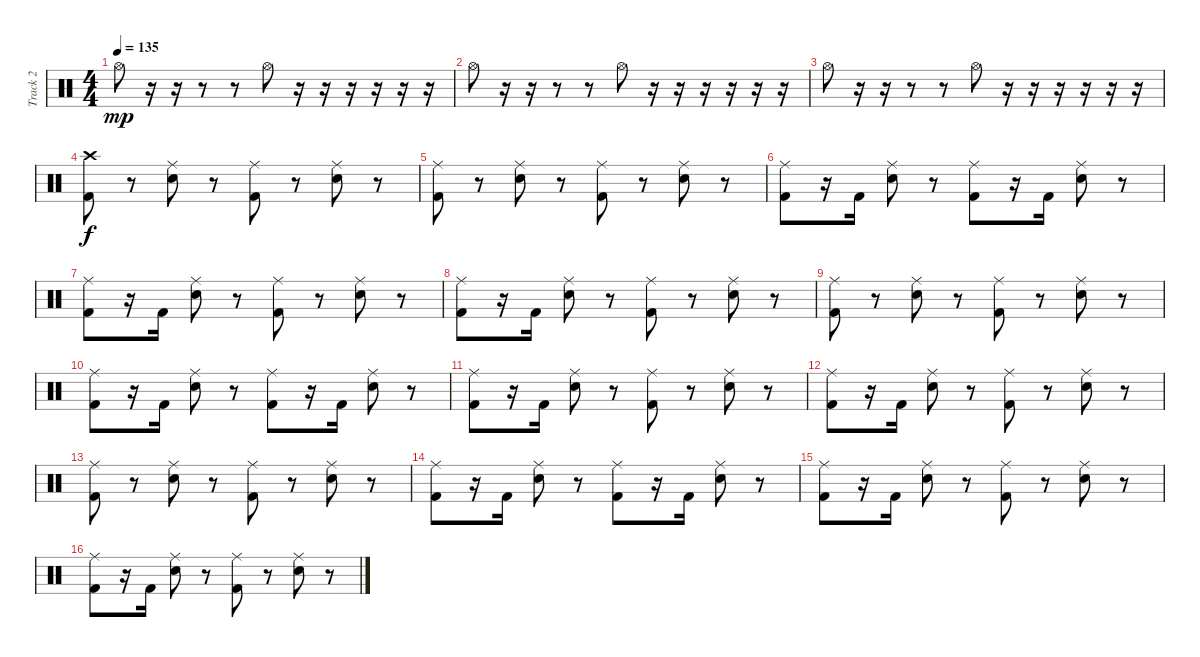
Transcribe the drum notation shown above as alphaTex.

\track ("Track 2" "Track 2") {instrument percussion}
\staff {score}
\articulation defaults
\ts (4 4)
\tempo 135
\clef neutral
\ks c "Hi-Hat (open)".8{dy mp}
r.16 r.16 r.8 r.8 "Hi-Hat (open)".8 r.16 r.16 r.16 r.16 r.16 r.16 |
"Hi-Hat (open)".8 r.16 r.16 r.8 r.8 "Hi-Hat (open)".8 r.16 r.16 r.16 r.16 r.16 r.16 |
"Hi-Hat (open)".8 r.16 r.16 r.8 r.8 "Hi-Hat (open)".8 r.16 r.16 r.16 r.16 r.16 r.16 |
("Crash high (hit)" "Kick (hit) 2").8{dy f} r.8 ("Ride (middle)" "Electric Snare (hit)").8 r.8 ("Ride (middle)" "Kick (hit) 2").8 r.8 ("Ride (middle)" "Electric Snare (hit)").8 r.8 |
("Ride (middle)" "Kick (hit) 2").8 r.8 ("Ride (middle)" "Electric Snare (hit)").8 r.8 ("Ride (middle)" "Kick (hit) 2").8 r.8 ("Ride (middle)" "Electric Snare (hit)").8 r.8 |
("Ride (middle)" "Kick (hit) 2").8 r.16 "Kick (hit) 2".16 ("Ride (middle)" "Electric Snare (hit)").8 r.8 ("Ride (middle)" "Kick (hit) 2").8 r.16 "Kick (hit) 2".16 ("Ride (middle)" "Electric Snare (hit)").8 r.8 |
("Ride (middle)" "Kick (hit) 2").8 r.16 "Kick (hit) 2".16 ("Ride (middle)" "Electric Snare (hit)").8 r.8 ("Ride (middle)" "Kick (hit) 2").8 r.8 ("Ride (middle)" "Electric Snare (hit)").8 r.8 |
("Ride (middle)" "Kick (hit) 2").8 r.16 "Kick (hit) 2".16 ("Ride (middle)" "Electric Snare (hit)").8 r.8 ("Ride (middle)" "Kick (hit) 2").8 r.8 ("Ride (middle)" "Electric Snare (hit)").8 r.8 |
("Ride (middle)" "Kick (hit) 2").8 r.8 ("Ride (middle)" "Electric Snare (hit)").8 r.8 ("Ride (middle)" "Kick (hit) 2").8 r.8 ("Ride (middle)" "Electric Snare (hit)").8 r.8 |
("Ride (middle)" "Kick (hit) 2").8 r.16 "Kick (hit) 2".16 ("Ride (middle)" "Electric Snare (hit)").8 r.8 ("Ride (middle)" "Kick (hit) 2").8 r.16 "Kick (hit) 2".16 ("Ride (middle)" "Electric Snare (hit)").8 r.8 |
("Ride (middle)" "Kick (hit) 2").8 r.16 "Kick (hit) 2".16 ("Ride (middle)" "Electric Snare (hit)").8 r.8 ("Ride (middle)" "Kick (hit) 2").8 r.8 ("Ride (middle)" "Electric Snare (hit)").8 r.8 |
("Ride (middle)" "Kick (hit) 2").8 r.16 "Kick (hit) 2".16 ("Ride (middle)" "Electric Snare (hit)").8 r.8 ("Ride (middle)" "Kick (hit) 2").8 r.8 ("Ride (middle)" "Electric Snare (hit)").8 r.8 |
("Ride (middle)" "Kick (hit) 2").8 r.8 ("Ride (middle)" "Electric Snare (hit)").8 r.8 ("Ride (middle)" "Kick (hit) 2").8 r.8 ("Ride (middle)" "Electric Snare (hit)").8 r.8 |
("Ride (middle)" "Kick (hit) 2").8 r.16 "Kick (hit) 2".16 ("Ride (middle)" "Electric Snare (hit)").8 r.8 ("Ride (middle)" "Kick (hit) 2").8 r.16 "Kick (hit) 2".16 ("Ride (middle)" "Electric Snare (hit)").8 r.8 |
("Ride (middle)" "Kick (hit) 2").8 r.16 "Kick (hit) 2".16 ("Ride (middle)" "Electric Snare (hit)").8 r.8 ("Ride (middle)" "Kick (hit) 2").8 r.8 ("Ride (middle)" "Electric Snare (hit)").8 r.8 |
("Ride (middle)" "Kick (hit) 2").8 r.16 "Kick (hit) 2".16 ("Ride (middle)" "Electric Snare (hit)").8 r.8 ("Ride (middle)" "Kick (hit) 2").8 r.8 ("Ride (middle)" "Electric Snare (hit)").8 r.8
